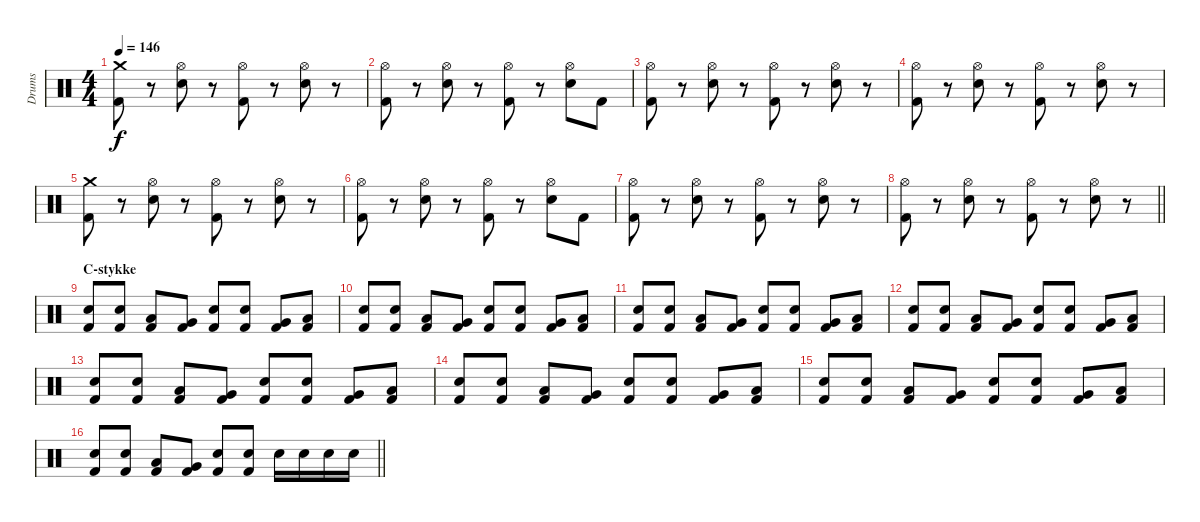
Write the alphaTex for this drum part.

\track ("Drums" "Drums") {instrument percussion}
\staff {score}
\articulation defaults
\ts (4 4)
\tempo 146
\clef neutral
\ks c
("Crash medium (hit)" "Kick (hit) 2").8{dy f} r.8 ("Hi-Hat (open)" "Electric Snare (hit)").8 r.8 ("Hi-Hat (open)" "Kick (hit) 2").8 r.8 ("Hi-Hat (open)" "Electric Snare (hit)").8 r.8 |
("Hi-Hat (open)" "Kick (hit) 2").8 r.8 ("Hi-Hat (open)" "Electric Snare (hit)").8 r.8 ("Hi-Hat (open)" "Kick (hit) 2").8 r.8 ("Hi-Hat (open)" "Electric Snare (hit)").8 "Kick (hit) 2".8 |
("Hi-Hat (open)" "Kick (hit) 2").8 r.8 ("Hi-Hat (open)" "Electric Snare (hit)").8 r.8 ("Hi-Hat (open)" "Kick (hit) 2").8 r.8 ("Hi-Hat (open)" "Electric Snare (hit)").8 r.8 |
("Hi-Hat (open)" "Kick (hit) 2").8 r.8 ("Hi-Hat (open)" "Electric Snare (hit)").8 r.8 ("Hi-Hat (open)" "Kick (hit) 2").8 r.8 ("Hi-Hat (open)" "Electric Snare (hit)").8 r.8 |
("Crash medium (hit)" "Kick (hit) 2").8 r.8 ("Hi-Hat (open)" "Electric Snare (hit)").8 r.8 ("Hi-Hat (open)" "Kick (hit) 2").8 r.8 ("Hi-Hat (open)" "Electric Snare (hit)").8 r.8 |
("Hi-Hat (open)" "Kick (hit) 2").8 r.8 ("Hi-Hat (open)" "Electric Snare (hit)").8 r.8 ("Hi-Hat (open)" "Kick (hit) 2").8 r.8 ("Hi-Hat (open)" "Electric Snare (hit)").8 "Kick (hit) 2".8 |
("Hi-Hat (open)" "Kick (hit) 2").8 r.8 ("Hi-Hat (open)" "Electric Snare (hit)").8 r.8 ("Hi-Hat (open)" "Kick (hit) 2").8 r.8 ("Hi-Hat (open)" "Electric Snare (hit)").8 r.8 |
\barLineRight lightlight
("Hi-Hat (open)" "Kick (hit) 2").8 r.8 ("Hi-Hat (open)" "Electric Snare (hit)").8 r.8 ("Hi-Hat (open)" "Kick (hit) 2").8 r.8 ("Hi-Hat (open)" "Electric Snare (hit)").8 r.8 |
\section ("" "C-stykke")
("Electric Snare (hit)" "Kick (hit) 2").8 ("Electric Snare (hit)" "Kick (hit) 2").8 ("Low Tom (hit)" "Kick (hit) 2").8 ("Very Low Tom (hit)" "Kick (hit) 2").8 ("Electric Snare (hit)" "Kick (hit) 2").8 ("Electric Snare (hit)" "Kick (hit) 2").8 ("Very Low Tom (hit)" "Kick (hit) 2").8 ("Low Floor Tom (hit)" "Kick (hit) 2").8 |
("Electric Snare (hit)" "Kick (hit) 2").8 ("Electric Snare (hit)" "Kick (hit) 2").8 ("Low Tom (hit)" "Kick (hit) 2").8 ("Very Low Tom (hit)" "Kick (hit) 2").8 ("Electric Snare (hit)" "Kick (hit) 2").8 ("Electric Snare (hit)" "Kick (hit) 2").8 ("Very Low Tom (hit)" "Kick (hit) 2").8 ("Low Floor Tom (hit)" "Kick (hit) 2").8 |
("Electric Snare (hit)" "Kick (hit) 2").8 ("Electric Snare (hit)" "Kick (hit) 2").8 ("Low Tom (hit)" "Kick (hit) 2").8 ("Very Low Tom (hit)" "Kick (hit) 2").8 ("Electric Snare (hit)" "Kick (hit) 2").8 ("Electric Snare (hit)" "Kick (hit) 2").8 ("Very Low Tom (hit)" "Kick (hit) 2").8 ("Low Floor Tom (hit)" "Kick (hit) 2").8 |
("Electric Snare (hit)" "Kick (hit) 2").8 ("Electric Snare (hit)" "Kick (hit) 2").8 ("Low Tom (hit)" "Kick (hit) 2").8 ("Very Low Tom (hit)" "Kick (hit) 2").8 ("Electric Snare (hit)" "Kick (hit) 2").8 ("Electric Snare (hit)" "Kick (hit) 2").8 ("Very Low Tom (hit)" "Kick (hit) 2").8 ("Low Floor Tom (hit)" "Kick (hit) 2").8 |
("Electric Snare (hit)" "Kick (hit) 2").8 ("Electric Snare (hit)" "Kick (hit) 2").8 ("Low Tom (hit)" "Kick (hit) 2").8 ("Very Low Tom (hit)" "Kick (hit) 2").8 ("Electric Snare (hit)" "Kick (hit) 2").8 ("Electric Snare (hit)" "Kick (hit) 2").8 ("Very Low Tom (hit)" "Kick (hit) 2").8 ("Low Floor Tom (hit)" "Kick (hit) 2").8 |
("Electric Snare (hit)" "Kick (hit) 2").8 ("Electric Snare (hit)" "Kick (hit) 2").8 ("Low Tom (hit)" "Kick (hit) 2").8 ("Very Low Tom (hit)" "Kick (hit) 2").8 ("Electric Snare (hit)" "Kick (hit) 2").8 ("Electric Snare (hit)" "Kick (hit) 2").8 ("Very Low Tom (hit)" "Kick (hit) 2").8 ("Low Floor Tom (hit)" "Kick (hit) 2").8 |
("Electric Snare (hit)" "Kick (hit) 2").8 ("Electric Snare (hit)" "Kick (hit) 2").8 ("Low Tom (hit)" "Kick (hit) 2").8 ("Very Low Tom (hit)" "Kick (hit) 2").8 ("Electric Snare (hit)" "Kick (hit) 2").8 ("Electric Snare (hit)" "Kick (hit) 2").8 ("Very Low Tom (hit)" "Kick (hit) 2").8 ("Low Floor Tom (hit)" "Kick (hit) 2").8 |
\barLineRight lightlight
("Electric Snare (hit)" "Kick (hit) 2").8 ("Electric Snare (hit)" "Kick (hit) 2").8 ("Low Tom (hit)" "Kick (hit) 2").8 ("Very Low Tom (hit)" "Kick (hit) 2").8 ("Electric Snare (hit)" "Kick (hit) 2").8 ("Electric Snare (hit)" "Kick (hit) 2").8 "Electric Snare (hit)".16 "Electric Snare (hit)".16 "Electric Snare (hit)".16 "Electric Snare (hit)".16
